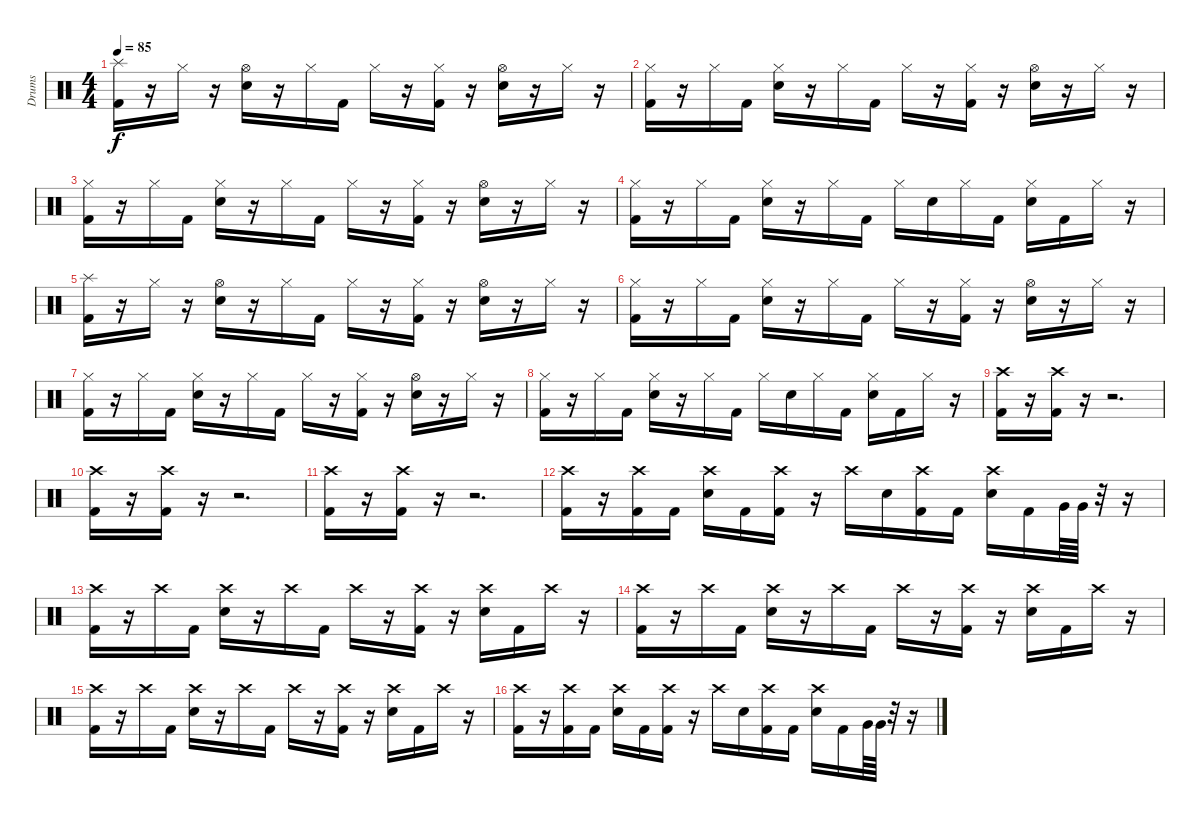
\track ("Drums" "Drums") {instrument percussion}
\staff {score}
\articulation defaults
\ts (4 4)
\tempo 85
\clef neutral
\ks c
("Splash (hit)" "Kick (hit) 2").16{dy f} r.16 "Hi-Hat (closed)".16 r.16 ("Hi-Hat (open)" "Electric Snare (hit)").16 r.16 "Hi-Hat (closed)".16 "Kick (hit) 2".16 "Hi-Hat (closed)".16 r.16 ("Hi-Hat (closed)" "Kick (hit) 2").16 r.16 ("Hi-Hat (open)" "Electric Snare (hit)").16 r.16 "Hi-Hat (closed)".16 r.16 |
("Hi-Hat (closed)" "Kick (hit) 2").16 r.16 "Hi-Hat (closed)".16 "Kick (hit) 2".16 ("Hi-Hat (closed)" "Electric Snare (hit)").16 r.16 "Hi-Hat (closed)".16 "Kick (hit) 2".16 "Hi-Hat (closed)".16 r.16 ("Hi-Hat (closed)" "Kick (hit) 2").16 r.16 ("Hi-Hat (open)" "Electric Snare (hit)").16 r.16 "Hi-Hat (closed)".16 r.16 |
("Hi-Hat (closed)" "Kick (hit) 2").16 r.16 "Hi-Hat (closed)".16 "Kick (hit) 2".16 ("Hi-Hat (closed)" "Electric Snare (hit)").16 r.16 "Hi-Hat (closed)".16 "Kick (hit) 2".16 "Hi-Hat (closed)".16 r.16 ("Hi-Hat (closed)" "Kick (hit) 2").16 r.16 ("Hi-Hat (open)" "Electric Snare (hit)").16 r.16 "Hi-Hat (closed)".16 r.16 |
("Hi-Hat (closed)" "Kick (hit) 2").16 r.16 "Hi-Hat (closed)".16 "Kick (hit) 2".16 ("Hi-Hat (closed)" "Electric Snare (hit)").16 r.16 "Hi-Hat (closed)".16 "Kick (hit) 2".16 "Hi-Hat (closed)".16 "Electric Snare (hit)".16 "Hi-Hat (closed)".16 "Kick (hit) 2".16 ("Hi-Hat (closed)" "Electric Snare (hit)").16 "Kick (hit) 2".16 "Hi-Hat (closed)".16 r.16 |
("Splash (hit)" "Kick (hit) 2").16 r.16 "Hi-Hat (closed)".16 r.16 ("Hi-Hat (open)" "Electric Snare (hit)").16 r.16 "Hi-Hat (closed)".16 "Kick (hit) 2".16 "Hi-Hat (closed)".16 r.16 ("Hi-Hat (closed)" "Kick (hit) 2").16 r.16 ("Hi-Hat (open)" "Electric Snare (hit)").16 r.16 "Hi-Hat (closed)".16 r.16 |
("Hi-Hat (closed)" "Kick (hit) 2").16 r.16 "Hi-Hat (closed)".16 "Kick (hit) 2".16 ("Hi-Hat (closed)" "Electric Snare (hit)").16 r.16 "Hi-Hat (closed)".16 "Kick (hit) 2".16 "Hi-Hat (closed)".16 r.16 ("Hi-Hat (closed)" "Kick (hit) 2").16 r.16 ("Hi-Hat (open)" "Electric Snare (hit)").16 r.16 "Hi-Hat (closed)".16 r.16 |
("Hi-Hat (closed)" "Kick (hit) 2").16 r.16 "Hi-Hat (closed)".16 "Kick (hit) 2".16 ("Hi-Hat (closed)" "Electric Snare (hit)").16 r.16 "Hi-Hat (closed)".16 "Kick (hit) 2".16 "Hi-Hat (closed)".16 r.16 ("Hi-Hat (closed)" "Kick (hit) 2").16 r.16 ("Hi-Hat (open)" "Electric Snare (hit)").16 r.16 "Hi-Hat (closed)".16 r.16 |
("Hi-Hat (closed)" "Kick (hit) 2").16 r.16 "Hi-Hat (closed)".16 "Kick (hit) 2".16 ("Hi-Hat (closed)" "Electric Snare (hit)").16 r.16 "Hi-Hat (closed)".16 "Kick (hit) 2".16 "Hi-Hat (closed)".16 "Electric Snare (hit)".16 "Hi-Hat (closed)".16 "Kick (hit) 2".16 ("Hi-Hat (closed)" "Electric Snare (hit)").16 "Kick (hit) 2".16 "Hi-Hat (closed)".16 r.16 |
("Crash high (hit)" "Kick (hit) 2").16 r.16 ("Crash high (hit)" "Kick (hit) 2").16 r.16 r.2{d} |
("Crash high (hit)" "Kick (hit) 2").16 r.16 ("Crash high (hit)" "Kick (hit) 2").16 r.16 r.2{d} |
("Crash high (hit)" "Kick (hit) 2").16 r.16 ("Crash high (hit)" "Kick (hit) 2").16 r.16 r.2{d} |
("Crash high (hit)" "Kick (hit) 2").16 r.16 ("Crash high (hit)" "Kick (hit) 2").16 "Kick (hit) 2".16 ("Crash high (hit)" "Electric Snare (hit)").16 "Kick (hit) 2".16 ("Crash high (hit)" "Kick (hit) 2").16 r.16 "Crash high (hit)".16 "Electric Snare (hit)".16 ("Crash high (hit)" "Kick (hit) 2").16 "Kick (hit) 2".16 ("Crash high (hit)" "Electric Snare (hit)").16 "Kick (hit) 2".16 "Very Low Tom (hit)".64 "Very Low Tom (hit)".64 r.32 r.16 |
("Crash high (hit)" "Kick (hit) 2").16 r.16 "Crash high (hit)".16 "Kick (hit) 2".16 ("Crash high (hit)" "Electric Snare (hit)").16 r.16 "Crash high (hit)".16 "Kick (hit) 2".16 "Crash high (hit)".16 r.16 ("Crash high (hit)" "Kick (hit) 2").16 r.16 ("Crash high (hit)" "Electric Snare (hit)").16 "Kick (hit) 2".16 "Crash high (hit)".16 r.16 |
("Crash high (hit)" "Kick (hit) 2").16 r.16 "Crash high (hit)".16 "Kick (hit) 2".16 ("Crash high (hit)" "Electric Snare (hit)").16 r.16 "Crash high (hit)".16 "Kick (hit) 2".16 "Crash high (hit)".16 r.16 ("Crash high (hit)" "Kick (hit) 2").16 r.16 ("Crash high (hit)" "Electric Snare (hit)").16 "Kick (hit) 2".16 "Crash high (hit)".16 r.16 |
("Crash high (hit)" "Kick (hit) 2").16 r.16 "Crash high (hit)".16 "Kick (hit) 2".16 ("Crash high (hit)" "Electric Snare (hit)").16 r.16 "Crash high (hit)".16 "Kick (hit) 2".16 "Crash high (hit)".16 r.16 ("Crash high (hit)" "Kick (hit) 2").16 r.16 ("Crash high (hit)" "Electric Snare (hit)").16 "Kick (hit) 2".16 "Crash high (hit)".16 r.16 |
("Crash high (hit)" "Kick (hit) 2").16 r.16 ("Crash high (hit)" "Kick (hit) 2").16 "Kick (hit) 2".16 ("Crash high (hit)" "Electric Snare (hit)").16 "Kick (hit) 2".16 ("Crash high (hit)" "Kick (hit) 2").16 r.16 "Crash high (hit)".16 "Electric Snare (hit)".16 ("Crash high (hit)" "Kick (hit) 2").16 "Kick (hit) 2".16 ("Crash high (hit)" "Electric Snare (hit)").16 "Kick (hit) 2".16 "Very Low Tom (hit)".64 "Very Low Tom (hit)".64 r.32 r.16
